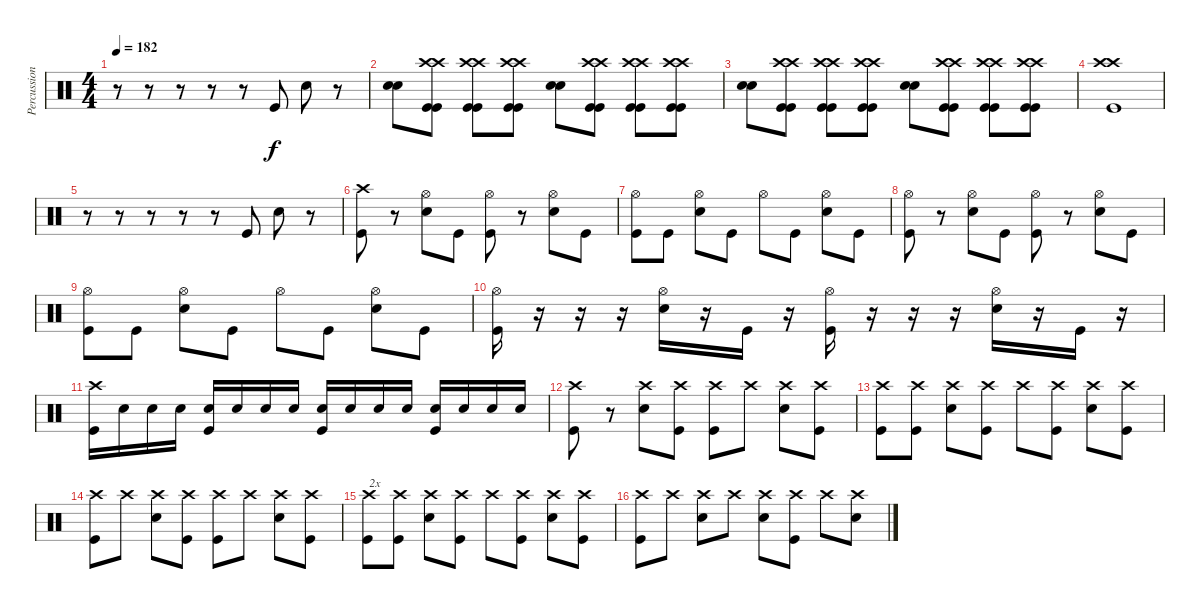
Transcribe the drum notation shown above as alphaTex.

\track ("Percussion" "Percussion") {instrument percussion}
\staff {score}
\articulation defaults
\ts (4 4)
\tempo 182
\clef neutral
\ks c
r.8{dy f} r.8 r.8 r.8 r.8 "Kick (hit)".8 "Snare (hit) 2".8 r.8 |
("Electric Snare (hit)" "Snare (hit) 2").8 ("Crash high (hit)" "Crash high (hit)" "Kick (hit)" "Kick (hit)").8 ("Crash high (hit)" "Crash high (hit)" "Kick (hit)" "Kick (hit)").8 ("Crash high (hit)" "Crash high (hit)" "Kick (hit)" "Kick (hit)").8 ("Electric Snare (hit)" "Snare (hit) 2").8 ("Crash high (hit)" "Crash high (hit)" "Kick (hit)" "Kick (hit)").8 ("Crash high (hit)" "Crash high (hit)" "Kick (hit)" "Kick (hit)").8 ("Crash high (hit)" "Crash high (hit)" "Kick (hit)" "Kick (hit)").8 |
("Electric Snare (hit)" "Snare (hit) 2").8 ("Crash high (hit)" "Crash high (hit)" "Kick (hit)" "Kick (hit)").8 ("Crash high (hit)" "Crash high (hit)" "Kick (hit)" "Kick (hit)").8 ("Crash high (hit)" "Crash high (hit)" "Kick (hit)" "Kick (hit)").8 ("Electric Snare (hit)" "Snare (hit) 2").8 ("Crash high (hit)" "Crash high (hit)" "Kick (hit)" "Kick (hit)").8 ("Crash high (hit)" "Crash high (hit)" "Kick (hit)" "Kick (hit)").8 ("Crash high (hit)" "Crash high (hit)" "Kick (hit)" "Kick (hit)").8 |
("Crash high (hit)" "Crash high (hit)" "Kick (hit)").1 |
r.8 r.8 r.8 r.8 r.8 "Kick (hit)".8 "Snare (hit) 2".8 r.8 |
("Crash high (hit)" "Kick (hit)").8 r.8 ("Hi-Hat (open)" "Snare (hit) 2").8 "Kick (hit)".8 ("Hi-Hat (open)" "Kick (hit)").8 r.8 ("Hi-Hat (open)" "Snare (hit) 2").8 "Kick (hit)".8 |
("Hi-Hat (open)" "Kick (hit)").8 "Kick (hit)".8 ("Hi-Hat (open)" "Snare (hit) 2").8 "Kick (hit)".8 "Hi-Hat (open)".8 "Kick (hit)".8 ("Hi-Hat (open)" "Snare (hit) 2").8 "Kick (hit)".8 |
("Hi-Hat (open)" "Kick (hit)").8 r.8 ("Hi-Hat (open)" "Snare (hit) 2").8 "Kick (hit)".8 ("Hi-Hat (open)" "Kick (hit)").8 r.8 ("Hi-Hat (open)" "Snare (hit) 2").8 "Kick (hit)".8 |
("Hi-Hat (open)" "Kick (hit)").8 "Kick (hit)".8 ("Hi-Hat (open)" "Snare (hit) 2").8 "Kick (hit)".8 "Hi-Hat (open)".8 "Kick (hit)".8 ("Hi-Hat (open)" "Snare (hit) 2").8 "Kick (hit)".8 |
("Hi-Hat (open)" "Kick (hit)").16 r.16 r.16 r.16 ("Hi-Hat (open)" "Snare (hit) 2").16 r.16 "Kick (hit)".16 r.16 ("Hi-Hat (open)" "Kick (hit)").16 r.16 r.16 r.16 ("Hi-Hat (open)" "Snare (hit) 2").16 r.16 "Kick (hit)".16 r.16 |
("Crash high (hit)" "Kick (hit)").16 "Snare (hit) 2".16 "Snare (hit) 2".16 "Snare (hit) 2".16 ("Snare (hit) 2" "Kick (hit)").16 "Snare (hit) 2".16 "Snare (hit) 2".16 "Snare (hit) 2".16 ("Snare (hit) 2" "Kick (hit)").16 "Snare (hit) 2".16 "Snare (hit) 2".16 "Snare (hit) 2".16 ("Snare (hit) 2" "Kick (hit)").16 "Snare (hit) 2".16 "Snare (hit) 2".16 "Snare (hit) 2".16 |
("Crash high (hit)" "Kick (hit)").8 r.8 ("Crash high (hit)" "Snare (hit) 2").8 ("Crash high (hit)" "Kick (hit)").8 ("Crash high (hit)" "Kick (hit)").8 "Crash high (hit)".8 ("Crash high (hit)" "Snare (hit) 2").8 ("Crash high (hit)" "Kick (hit)").8 |
("Crash high (hit)" "Kick (hit)").8 ("Crash high (hit)" "Kick (hit)").8 ("Crash high (hit)" "Snare (hit) 2").8 ("Crash high (hit)" "Kick (hit)").8 "Crash high (hit)".8 ("Crash high (hit)" "Kick (hit)").8 ("Crash high (hit)" "Snare (hit) 2").8 ("Crash high (hit)" "Kick (hit)").8 |
("Crash high (hit)" "Kick (hit)").8 "Crash high (hit)".8 ("Crash high (hit)" "Snare (hit) 2").8 ("Crash high (hit)" "Kick (hit)").8 ("Crash high (hit)" "Kick (hit)").8 "Crash high (hit)".8 ("Crash high (hit)" "Snare (hit) 2").8 ("Crash high (hit)" "Kick (hit)").8 |
("Crash high (hit)" "Kick (hit)").8{txt "2x"} ("Crash high (hit)" "Kick (hit)").8 ("Crash high (hit)" "Snare (hit) 2").8 ("Crash high (hit)" "Kick (hit)").8 "Crash high (hit)".8 ("Crash high (hit)" "Kick (hit)").8 ("Crash high (hit)" "Snare (hit) 2").8 ("Crash high (hit)" "Kick (hit)").8 |
("Crash high (hit)" "Kick (hit)").8 "Crash high (hit)".8 ("Crash high (hit)" "Snare (hit) 2").8 "Crash high (hit)".8 ("Crash high (hit)" "Snare (hit) 2").8 ("Crash high (hit)" "Kick (hit)").8 "Crash high (hit)".8 ("Crash high (hit)" "Snare (hit) 2").8
